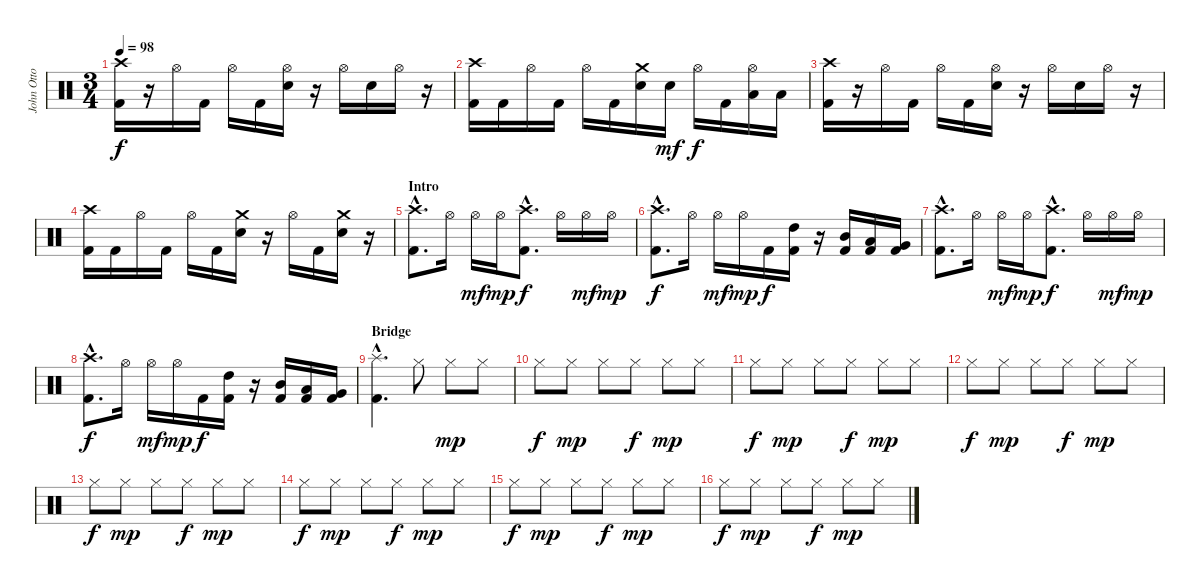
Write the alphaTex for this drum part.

\track ("John Otto - Drums" "John Otto ") {instrument percussion}
\staff {score}
\articulation defaults
\ts (3 4)
\tempo 98
\clef neutral
\ks c
("Crash high (hit)" "Kick (hit) 2").16{dy f} r.16 "Hi-Hat (open)".16 "Kick (hit) 2".16 "Hi-Hat (open)".16 "Kick (hit) 2".16 ("Hi-Hat (open)" "Electric Snare (hit)").16 r.16 "Hi-Hat (open)".16 "Electric Snare (hit)".16 "Hi-Hat (open)".16 r.16 |
("Crash high (hit)" "Kick (hit) 2").16 "Kick (hit) 2".16 "Hi-Hat (open)".16 "Kick (hit) 2".16 "Hi-Hat (open)".16 "Kick (hit) 2".16 ("Crash medium (hit)" "Electric Snare (hit)").16 "Electric Snare (hit)".16{dy mf} "Hi-Hat (open)".16{dy f} "Kick (hit) 2".16 ("Hi-Hat (open)" "Low Tom (hit)").16 "Low Tom (hit)".16 |
("Crash high (hit)" "Kick (hit) 2").16 r.16 "Hi-Hat (open)".16 "Kick (hit) 2".16 "Hi-Hat (open)".16 "Kick (hit) 2".16 ("Hi-Hat (open)" "Electric Snare (hit)").16 r.16 "Hi-Hat (open)".16 "Electric Snare (hit)".16 "Hi-Hat (open)".16 r.16 |
("Crash high (hit)" "Kick (hit) 2").16 "Kick (hit) 2".16 "Hi-Hat (open)".16 "Kick (hit) 2".16 "Hi-Hat (open)".16 "Kick (hit) 2".16 ("Crash medium (hit)" "Electric Snare (hit)").16 r.16 "Hi-Hat (open)".16 "Kick (hit) 2".16 ("Crash medium (hit)" "Electric Snare (hit)").16 r.16 |
\section ("" "Intro")
("Crash high (hit)"{hac} "Kick (hit) 2"{hac}).8{d} "Hi-Hat (open)".16 "Hi-Hat (open)".16{dy mf} "Hi-Hat (open)".16{dy mp} ("Crash high (hit)"{hac} "Kick (hit) 2"{hac}).8{d dy f} "Hi-Hat (open)".16 "Hi-Hat (open)".16{dy mf} "Hi-Hat (open)".16{dy mp} |
("Crash high (hit)"{hac} "Kick (hit) 2"{hac}).8{d dy f} "Hi-Hat (open)".16 "Hi-Hat (open)".16{dy mf} "Hi-Hat (open)".16{dy mp} "Kick (hit) 2".16{dy f} ("High Tom (hit)" "Kick (hit) 2").16 r.16 ("Mid Tom (hit)" "Kick (hit) 2").16 ("Low Tom (hit)" "Kick (hit) 2").16 ("Very Low Tom (hit)" "Kick (hit) 2").16 |
("Crash high (hit)"{hac} "Kick (hit) 2"{hac}).8{d} "Hi-Hat (open)".16 "Hi-Hat (open)".16{dy mf} "Hi-Hat (open)".16{dy mp} ("Crash high (hit)"{hac} "Kick (hit) 2"{hac}).8{d dy f} "Hi-Hat (open)".16 "Hi-Hat (open)".16{dy mf} "Hi-Hat (open)".16{dy mp} |
("Crash high (hit)"{hac} "Kick (hit) 2"{hac}).8{d dy f} "Hi-Hat (open)".16 "Hi-Hat (open)".16{dy mf} "Hi-Hat (open)".16{dy mp} "Kick (hit) 2".16{dy f} ("High Tom (hit)" "Kick (hit) 2").16 r.16 ("Mid Tom (hit)" "Kick (hit) 2").16 ("Low Tom (hit)" "Kick (hit) 2").16 ("Very Low Tom (hit)" "Kick (hit) 2").16 |
\section ("" "Bridge")
("Splash (hit)"{hac} "Kick (hit) 2"{hac}).4{d} "Hi-Hat (closed)".8 "Hi-Hat (closed)".8{dy mp} "Hi-Hat (closed)".8 |
"Hi-Hat (closed)".8{dy f} "Hi-Hat (closed)".8{dy mp} "Hi-Hat (closed)".8 "Hi-Hat (closed)".8{dy f} "Hi-Hat (closed)".8{dy mp} "Hi-Hat (closed)".8 |
"Hi-Hat (closed)".8{dy f} "Hi-Hat (closed)".8{dy mp} "Hi-Hat (closed)".8 "Hi-Hat (closed)".8{dy f} "Hi-Hat (closed)".8{dy mp} "Hi-Hat (closed)".8 |
"Hi-Hat (closed)".8{dy f} "Hi-Hat (closed)".8{dy mp} "Hi-Hat (closed)".8 "Hi-Hat (closed)".8{dy f} "Hi-Hat (closed)".8{dy mp} "Hi-Hat (closed)".8 |
"Hi-Hat (closed)".8{dy f} "Hi-Hat (closed)".8{dy mp} "Hi-Hat (closed)".8 "Hi-Hat (closed)".8{dy f} "Hi-Hat (closed)".8{dy mp} "Hi-Hat (closed)".8 |
"Hi-Hat (closed)".8{dy f} "Hi-Hat (closed)".8{dy mp} "Hi-Hat (closed)".8 "Hi-Hat (closed)".8{dy f} "Hi-Hat (closed)".8{dy mp} "Hi-Hat (closed)".8 |
"Hi-Hat (closed)".8{dy f} "Hi-Hat (closed)".8{dy mp} "Hi-Hat (closed)".8 "Hi-Hat (closed)".8{dy f} "Hi-Hat (closed)".8{dy mp} "Hi-Hat (closed)".8 |
"Hi-Hat (closed)".8{dy f} "Hi-Hat (closed)".8{dy mp} "Hi-Hat (closed)".8 "Hi-Hat (closed)".8{dy f} "Hi-Hat (closed)".8{dy mp} "Hi-Hat (closed)".8
